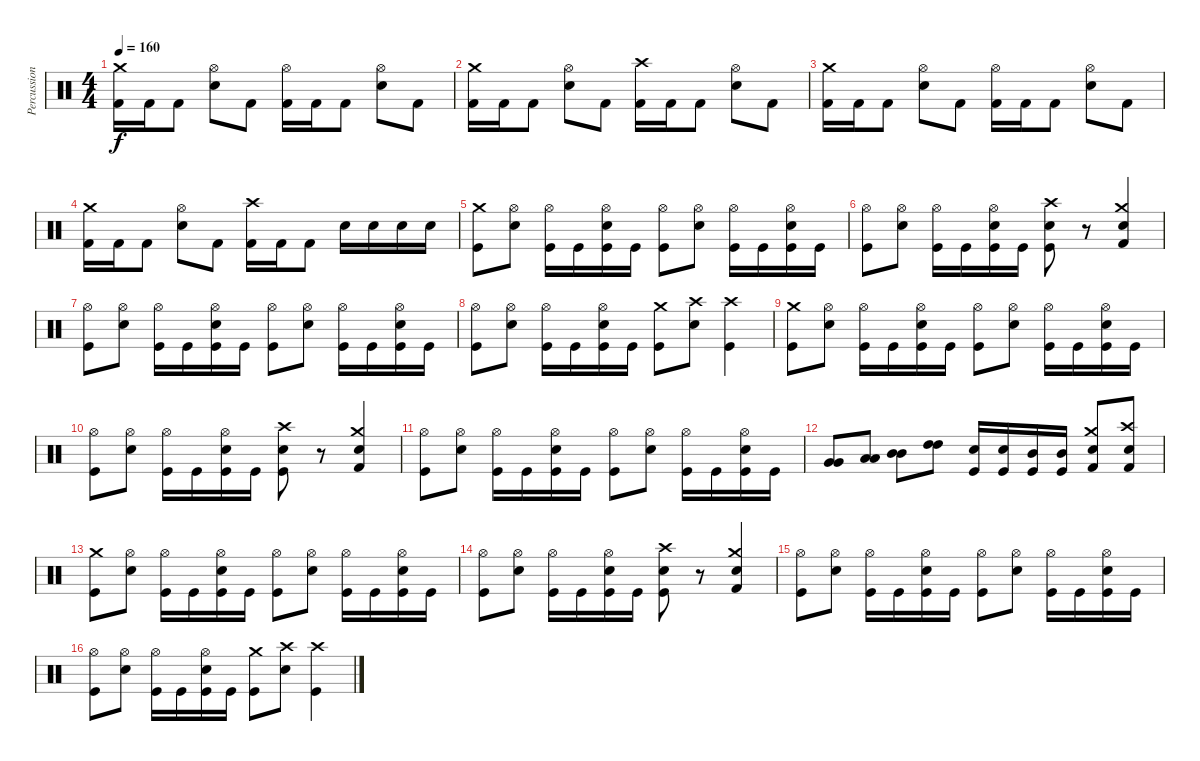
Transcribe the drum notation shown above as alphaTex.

\track ("Percussions" "Percussion") {instrument percussion}
\staff {score}
\articulation defaults
\ts (4 4)
\tempo 160
\clef neutral
\ks c
("Kick (hit) 2" "Crash medium (hit)").16{dy f} "Kick (hit) 2".16 "Kick (hit) 2".8 ("Electric Snare (hit)" "Hi-Hat (open)").8 "Kick (hit) 2".8 ("Kick (hit) 2" "Hi-Hat (open)").16 "Kick (hit) 2".16 "Kick (hit) 2".8 ("Electric Snare (hit)" "Hi-Hat (open)").8 "Kick (hit) 2".8 |
("Kick (hit) 2" "Crash medium (hit)").16 "Kick (hit) 2".16 "Kick (hit) 2".8 ("Electric Snare (hit)" "Hi-Hat (open)").8 "Kick (hit) 2".8 ("Kick (hit) 2" "Crash high (hit)").16 "Kick (hit) 2".16 "Kick (hit) 2".8 ("Electric Snare (hit)" "Hi-Hat (open)").8 "Kick (hit) 2".8 |
("Kick (hit) 2" "Crash medium (hit)").16 "Kick (hit) 2".16 "Kick (hit) 2".8 ("Electric Snare (hit)" "Hi-Hat (open)").8 "Kick (hit) 2".8 ("Kick (hit) 2" "Hi-Hat (open)").16 "Kick (hit) 2".16 "Kick (hit) 2".8 ("Electric Snare (hit)" "Hi-Hat (open)").8 "Kick (hit) 2".8 |
("Kick (hit) 2" "Crash medium (hit)").16 "Kick (hit) 2".16 "Kick (hit) 2".8 ("Electric Snare (hit)" "Hi-Hat (open)").8 "Kick (hit) 2".8 ("Kick (hit) 2" "Crash high (hit)").16 "Kick (hit) 2".16 "Kick (hit) 2".8 "Electric Snare (hit)".16 "Electric Snare (hit)".16 "Electric Snare (hit)".16 "Electric Snare (hit)".16 |
("Kick (hit)" "Crash medium (hit)").8 ("Snare (hit) 2" "Hi-Hat (open)").8 ("Kick (hit)" "Hi-Hat (open)").16 "Kick (hit)".16 ("Kick (hit)" "Snare (hit) 2" "Hi-Hat (open)").16 "Kick (hit)".16 ("Kick (hit)" "Hi-Hat (open)").8 ("Snare (hit) 2" "Hi-Hat (open)").8 ("Kick (hit)" "Hi-Hat (open)").16 "Kick (hit)".16 ("Kick (hit)" "Snare (hit) 2" "Hi-Hat (open)").16 "Kick (hit)".16 |
("Kick (hit)" "Hi-Hat (open)").8 ("Snare (hit) 2" "Hi-Hat (open)").8 ("Kick (hit)" "Hi-Hat (open)").16 "Kick (hit)".16 ("Kick (hit)" "Snare (hit) 2" "Hi-Hat (open)").16 "Kick (hit)".16 ("Kick (hit)" "Snare (hit) 2" "Crash high (hit)").8 r.8 ("Kick (hit) 2" "Electric Snare (hit)" "Crash medium (hit)").4 |
("Kick (hit)" "Hi-Hat (open)").8 ("Snare (hit) 2" "Hi-Hat (open)").8 ("Kick (hit)" "Hi-Hat (open)").16 "Kick (hit)".16 ("Kick (hit)" "Snare (hit) 2" "Hi-Hat (open)").16 "Kick (hit)".16 ("Kick (hit)" "Hi-Hat (open)").8 ("Snare (hit) 2" "Hi-Hat (open)").8 ("Kick (hit)" "Hi-Hat (open)").16 "Kick (hit)".16 ("Kick (hit)" "Snare (hit) 2" "Hi-Hat (open)").16 "Kick (hit)".16 |
("Kick (hit)" "Hi-Hat (open)").8 ("Snare (hit) 2" "Hi-Hat (open)").8 ("Kick (hit)" "Hi-Hat (open)").16 "Kick (hit)".16 ("Kick (hit)" "Snare (hit) 2" "Hi-Hat (open)").16 "Kick (hit)".16 ("Kick (hit)" "Crash medium (hit)").8 ("Snare (hit) 2" "Crash high (hit)").8 ("Kick (hit)" "Crash high (hit)").4 |
("Kick (hit)" "Crash medium (hit)").8 ("Snare (hit) 2" "Hi-Hat (open)").8 ("Kick (hit)" "Hi-Hat (open)").16 "Kick (hit)".16 ("Kick (hit)" "Snare (hit) 2" "Hi-Hat (open)").16 "Kick (hit)".16 ("Kick (hit)" "Hi-Hat (open)").8 ("Snare (hit) 2" "Hi-Hat (open)").8 ("Kick (hit)" "Hi-Hat (open)").16 "Kick (hit)".16 ("Kick (hit)" "Snare (hit) 2" "Hi-Hat (open)").16 "Kick (hit)".16 |
("Kick (hit)" "Hi-Hat (open)").8 ("Snare (hit) 2" "Hi-Hat (open)").8 ("Kick (hit)" "Hi-Hat (open)").16 "Kick (hit)".16 ("Kick (hit)" "Snare (hit) 2" "Hi-Hat (open)").16 "Kick (hit)".16 ("Kick (hit)" "Snare (hit) 2" "Crash high (hit)").8 r.8 ("Kick (hit) 2" "Electric Snare (hit)" "Crash medium (hit)").4 |
("Kick (hit)" "Hi-Hat (open)").8 ("Snare (hit) 2" "Hi-Hat (open)").8 ("Kick (hit)" "Hi-Hat (open)").16 "Kick (hit)".16 ("Kick (hit)" "Snare (hit) 2" "Hi-Hat (open)").16 "Kick (hit)".16 ("Kick (hit)" "Hi-Hat (open)").8 ("Snare (hit) 2" "Hi-Hat (open)").8 ("Kick (hit)" "Hi-Hat (open)").16 "Kick (hit)".16 ("Kick (hit)" "Snare (hit) 2" "Hi-Hat (open)").16 "Kick (hit)".16 |
("Very Low Tom (hit)" "Very Low Tom (hit)").8 ("Low Tom (hit)" "Low Tom (hit)").8 ("Mid Tom (hit)" "Mid Tom (hit)").8 ("High Tom (hit)" "High Tom (hit)").8 ("Snare (hit) 2" "Kick (hit)").16 ("Snare (hit) 2" "Kick (hit)").16 ("Mid Tom (hit)" "Kick (hit)").16 ("Mid Tom (hit)" "Kick (hit)").16 ("Crash medium (hit)" "Electric Snare (hit)" "Kick (hit) 2").8 ("Crash high (hit)" "Snare (hit) 2" "Kick (hit) 2").8 |
("Kick (hit)" "Crash medium (hit)").8 ("Snare (hit) 2" "Hi-Hat (open)").8 ("Kick (hit)" "Hi-Hat (open)").16 "Kick (hit)".16 ("Kick (hit)" "Snare (hit) 2" "Hi-Hat (open)").16 "Kick (hit)".16 ("Kick (hit)" "Hi-Hat (open)").8 ("Snare (hit) 2" "Hi-Hat (open)").8 ("Kick (hit)" "Hi-Hat (open)").16 "Kick (hit)".16 ("Kick (hit)" "Snare (hit) 2" "Hi-Hat (open)").16 "Kick (hit)".16 |
("Kick (hit)" "Hi-Hat (open)").8 ("Snare (hit) 2" "Hi-Hat (open)").8 ("Kick (hit)" "Hi-Hat (open)").16 "Kick (hit)".16 ("Kick (hit)" "Snare (hit) 2" "Hi-Hat (open)").16 "Kick (hit)".16 ("Kick (hit)" "Snare (hit) 2" "Crash high (hit)").8 r.8 ("Kick (hit) 2" "Electric Snare (hit)" "Crash medium (hit)").4 |
("Kick (hit)" "Hi-Hat (open)").8 ("Snare (hit) 2" "Hi-Hat (open)").8 ("Kick (hit)" "Hi-Hat (open)").16 "Kick (hit)".16 ("Kick (hit)" "Snare (hit) 2" "Hi-Hat (open)").16 "Kick (hit)".16 ("Kick (hit)" "Hi-Hat (open)").8 ("Snare (hit) 2" "Hi-Hat (open)").8 ("Kick (hit)" "Hi-Hat (open)").16 "Kick (hit)".16 ("Kick (hit)" "Snare (hit) 2" "Hi-Hat (open)").16 "Kick (hit)".16 |
("Kick (hit)" "Hi-Hat (open)").8 ("Snare (hit) 2" "Hi-Hat (open)").8 ("Kick (hit)" "Hi-Hat (open)").16 "Kick (hit)".16 ("Kick (hit)" "Snare (hit) 2" "Hi-Hat (open)").16 "Kick (hit)".16 ("Kick (hit)" "Crash medium (hit)").8 ("Snare (hit) 2" "Crash high (hit)").8 ("Kick (hit)" "Crash high (hit)").4
